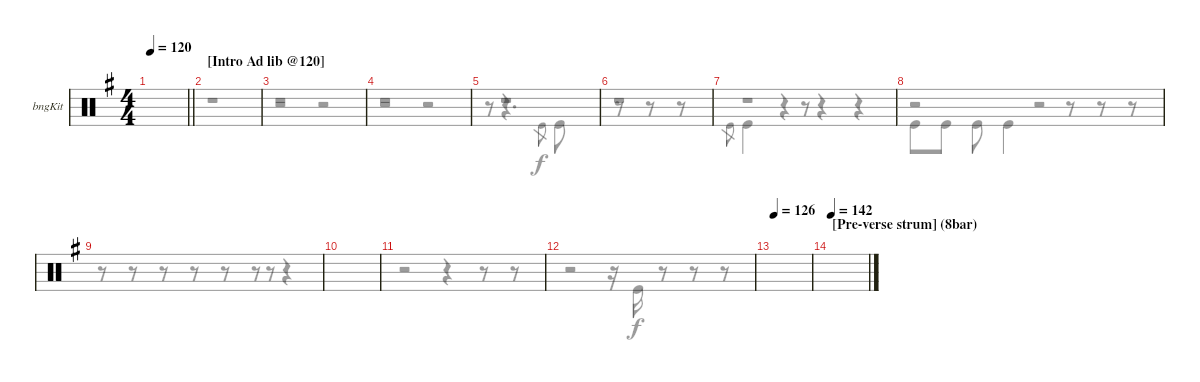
\bracketExtendMode groupsimilarinstruments
\firstSystemTrackNameOrientation horizontal
\otherSystemsTrackNameOrientation horizontal
\track ("Bongos" "bngKit") {instrument percussion}
\staff {score}
\articulation defaults
\voice
\ts (4 4)
\tempo 120
\clef neutral
\barLineRight lightlight
\ks eminor
|
\section ("" "[Intro Ad lib @120]")
|
|
|
|
|
|
|
|
|
|
|
\tempo 126
|
\section ("" "[Pre-verse strum] (8bar)")
\tempo (142 0.00625)
|
|
\voice
\clef neutral
\barLineRight lightlight
\ks eminor
|
r.1 |
r.1 |
r.1 |
r.1 |
r.1 |
r.1 |
r.2 r.2 |
r.8 r.8 r.8 r.8 r.8 r.8 r.8{gr} r.4 |
|
r.2 r.4 r.8 r.8 |
r.2 r.16 "Kick (hit)".16 r.8 r.8 r.8 |
|
|
|
\voice
\clef neutral
\ottava regular
\simile none
\barLineRight lightlight
\ks eminor
|
|
r.2 r.2 |
r.2 r.2 |
r.8{gr} r.4{d} "Kick (hit)".8{gr} "Kick (hit)".8 |
r.8 r.8 r.8 |
"Kick (hit)".8{gr} "Kick (hit)".4 r.4 r.8{gr} r.4 r.4 |
"Kick (hit)".8 "Kick (hit)".8 "Kick (hit)".8 "Kick (hit)".4 r.8 r.8 r.8 |
|
|
|
|
|
|
|
